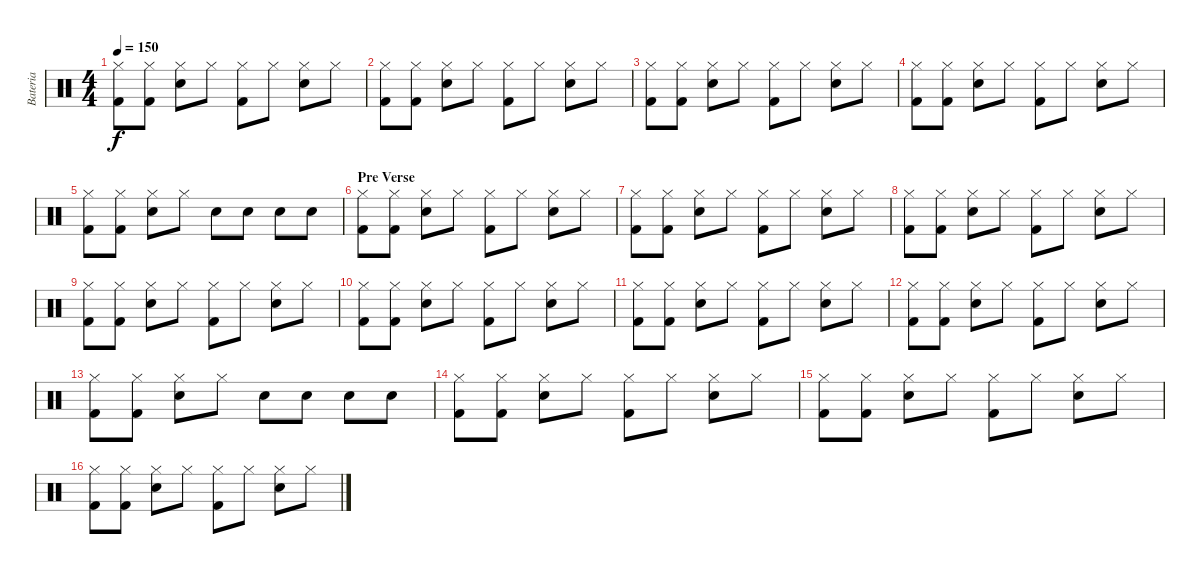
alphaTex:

\track ("Bateria" "Bateria") {instrument percussion}
\staff {score}
\articulation defaults
\ts (4 4)
\tempo 150
\clef neutral
\ks c
("Hi-Hat (closed)" "Kick (hit) 2").8{dy f} ("Hi-Hat (closed)" "Kick (hit) 2").8 ("Hi-Hat (closed)" "Snare (hit) 2").8 "Hi-Hat (closed)".8 ("Hi-Hat (closed)" "Kick (hit) 2").8 "Hi-Hat (closed)".8 ("Hi-Hat (closed)" "Snare (hit) 2").8 "Hi-Hat (closed)".8 |
("Hi-Hat (closed)" "Kick (hit) 2").8 ("Hi-Hat (closed)" "Kick (hit) 2").8 ("Hi-Hat (closed)" "Snare (hit) 2").8 "Hi-Hat (closed)".8 ("Hi-Hat (closed)" "Kick (hit) 2").8 "Hi-Hat (closed)".8 ("Hi-Hat (closed)" "Snare (hit) 2").8 "Hi-Hat (closed)".8 |
("Hi-Hat (closed)" "Kick (hit) 2").8 ("Hi-Hat (closed)" "Kick (hit) 2").8 ("Hi-Hat (closed)" "Snare (hit) 2").8 "Hi-Hat (closed)".8 ("Hi-Hat (closed)" "Kick (hit) 2").8 "Hi-Hat (closed)".8 ("Hi-Hat (closed)" "Snare (hit) 2").8 "Hi-Hat (closed)".8 |
("Hi-Hat (closed)" "Kick (hit) 2").8 ("Hi-Hat (closed)" "Kick (hit) 2").8 ("Hi-Hat (closed)" "Snare (hit) 2").8 "Hi-Hat (closed)".8 ("Hi-Hat (closed)" "Kick (hit) 2").8 "Hi-Hat (closed)".8 ("Hi-Hat (closed)" "Snare (hit) 2").8 "Hi-Hat (closed)".8 |
("Hi-Hat (closed)" "Kick (hit) 2").8 ("Hi-Hat (closed)" "Kick (hit) 2").8 ("Hi-Hat (closed)" "Snare (hit) 2").8 "Hi-Hat (closed)".8 "Snare (hit) 2".8 "Snare (hit) 2".8 "Snare (hit) 2".8 "Snare (hit) 2".8 |
\section ("" "Pre Verse")
("Hi-Hat (closed)" "Kick (hit) 2").8 ("Hi-Hat (closed)" "Kick (hit) 2").8 ("Hi-Hat (closed)" "Snare (hit) 2").8 "Hi-Hat (closed)".8 ("Hi-Hat (closed)" "Kick (hit) 2").8 "Hi-Hat (closed)".8 ("Hi-Hat (closed)" "Snare (hit) 2").8 "Hi-Hat (closed)".8 |
("Hi-Hat (closed)" "Kick (hit) 2").8 ("Hi-Hat (closed)" "Kick (hit) 2").8 ("Hi-Hat (closed)" "Snare (hit) 2").8 "Hi-Hat (closed)".8 ("Hi-Hat (closed)" "Kick (hit) 2").8 "Hi-Hat (closed)".8 ("Hi-Hat (closed)" "Snare (hit) 2").8 "Hi-Hat (closed)".8 |
("Hi-Hat (closed)" "Kick (hit) 2").8 ("Hi-Hat (closed)" "Kick (hit) 2").8 ("Hi-Hat (closed)" "Snare (hit) 2").8 "Hi-Hat (closed)".8 ("Hi-Hat (closed)" "Kick (hit) 2").8 "Hi-Hat (closed)".8 ("Hi-Hat (closed)" "Snare (hit) 2").8 "Hi-Hat (closed)".8 |
("Hi-Hat (closed)" "Kick (hit) 2").8 ("Hi-Hat (closed)" "Kick (hit) 2").8 ("Hi-Hat (closed)" "Snare (hit) 2").8 "Hi-Hat (closed)".8 ("Hi-Hat (closed)" "Kick (hit) 2").8 "Hi-Hat (closed)".8 ("Hi-Hat (closed)" "Snare (hit) 2").8 "Hi-Hat (closed)".8 |
("Hi-Hat (closed)" "Kick (hit) 2").8 ("Hi-Hat (closed)" "Kick (hit) 2").8 ("Hi-Hat (closed)" "Snare (hit) 2").8 "Hi-Hat (closed)".8 ("Hi-Hat (closed)" "Kick (hit) 2").8 "Hi-Hat (closed)".8 ("Hi-Hat (closed)" "Snare (hit) 2").8 "Hi-Hat (closed)".8 |
("Hi-Hat (closed)" "Kick (hit) 2").8 ("Hi-Hat (closed)" "Kick (hit) 2").8 ("Hi-Hat (closed)" "Snare (hit) 2").8 "Hi-Hat (closed)".8 ("Hi-Hat (closed)" "Kick (hit) 2").8 "Hi-Hat (closed)".8 ("Hi-Hat (closed)" "Snare (hit) 2").8 "Hi-Hat (closed)".8 |
("Hi-Hat (closed)" "Kick (hit) 2").8 ("Hi-Hat (closed)" "Kick (hit) 2").8 ("Hi-Hat (closed)" "Snare (hit) 2").8 "Hi-Hat (closed)".8 ("Hi-Hat (closed)" "Kick (hit) 2").8 "Hi-Hat (closed)".8 ("Hi-Hat (closed)" "Snare (hit) 2").8 "Hi-Hat (closed)".8 |
("Hi-Hat (closed)" "Kick (hit) 2").8 ("Hi-Hat (closed)" "Kick (hit) 2").8 ("Hi-Hat (closed)" "Snare (hit) 2").8 "Hi-Hat (closed)".8 "Snare (hit) 2".8 "Snare (hit) 2".8 "Snare (hit) 2".8 "Snare (hit) 2".8 |
("Hi-Hat (closed)" "Kick (hit) 2").8 ("Hi-Hat (closed)" "Kick (hit) 2").8 ("Hi-Hat (closed)" "Snare (hit) 2").8 "Hi-Hat (closed)".8 ("Hi-Hat (closed)" "Kick (hit) 2").8 "Hi-Hat (closed)".8 ("Hi-Hat (closed)" "Snare (hit) 2").8 "Hi-Hat (closed)".8 |
("Hi-Hat (closed)" "Kick (hit) 2").8 ("Hi-Hat (closed)" "Kick (hit) 2").8 ("Hi-Hat (closed)" "Snare (hit) 2").8 "Hi-Hat (closed)".8 ("Hi-Hat (closed)" "Kick (hit) 2").8 "Hi-Hat (closed)".8 ("Hi-Hat (closed)" "Snare (hit) 2").8 "Hi-Hat (closed)".8 |
("Hi-Hat (closed)" "Kick (hit) 2").8 ("Hi-Hat (closed)" "Kick (hit) 2").8 ("Hi-Hat (closed)" "Snare (hit) 2").8 "Hi-Hat (closed)".8 ("Hi-Hat (closed)" "Kick (hit) 2").8 "Hi-Hat (closed)".8 ("Hi-Hat (closed)" "Snare (hit) 2").8 "Hi-Hat (closed)".8
